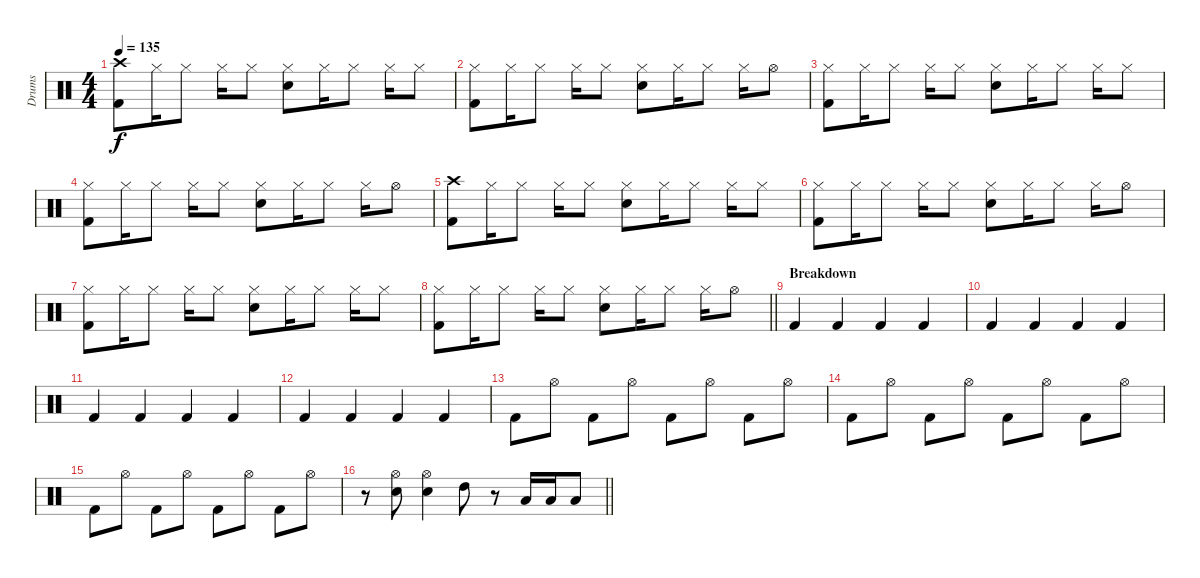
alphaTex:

\track ("Drums" "Drums") {instrument percussion}
\staff {score}
\articulation defaults
\ts (4 4)
\tempo 135
\clef neutral
\ks c
("Crash high (hit)" "Kick (hit) 2").8{dy f} "Hi-Hat (closed)".16 "Hi-Hat (closed)".8 "Hi-Hat (closed)".16 "Hi-Hat (closed)".8 ("Hi-Hat (closed)" "Electric Snare (hit)").8 "Hi-Hat (closed)".16 "Hi-Hat (closed)".8 "Hi-Hat (closed)".16 "Hi-Hat (closed)".8 |
("Hi-Hat (closed)" "Kick (hit) 2").8 "Hi-Hat (closed)".16 "Hi-Hat (closed)".8 "Hi-Hat (closed)".16 "Hi-Hat (closed)".8 ("Hi-Hat (closed)" "Electric Snare (hit)").8 "Hi-Hat (closed)".16 "Hi-Hat (closed)".8 "Hi-Hat (closed)".16 "Hi-Hat (open)".8 |
("Hi-Hat (closed)" "Kick (hit) 2").8 "Hi-Hat (closed)".16 "Hi-Hat (closed)".8 "Hi-Hat (closed)".16 "Hi-Hat (closed)".8 ("Hi-Hat (closed)" "Electric Snare (hit)").8 "Hi-Hat (closed)".16 "Hi-Hat (closed)".8 "Hi-Hat (closed)".16 "Hi-Hat (closed)".8 |
("Hi-Hat (closed)" "Kick (hit) 2").8 "Hi-Hat (closed)".16 "Hi-Hat (closed)".8 "Hi-Hat (closed)".16 "Hi-Hat (closed)".8 ("Hi-Hat (closed)" "Electric Snare (hit)").8 "Hi-Hat (closed)".16 "Hi-Hat (closed)".8 "Hi-Hat (closed)".16 "Hi-Hat (open)".8 |
("Crash high (hit)" "Kick (hit) 2").8 "Hi-Hat (closed)".16 "Hi-Hat (closed)".8 "Hi-Hat (closed)".16 "Hi-Hat (closed)".8 ("Hi-Hat (closed)" "Electric Snare (hit)").8 "Hi-Hat (closed)".16 "Hi-Hat (closed)".8 "Hi-Hat (closed)".16 "Hi-Hat (closed)".8 |
("Hi-Hat (closed)" "Kick (hit) 2").8 "Hi-Hat (closed)".16 "Hi-Hat (closed)".8 "Hi-Hat (closed)".16 "Hi-Hat (closed)".8 ("Hi-Hat (closed)" "Electric Snare (hit)").8 "Hi-Hat (closed)".16 "Hi-Hat (closed)".8 "Hi-Hat (closed)".16 "Hi-Hat (open)".8 |
("Hi-Hat (closed)" "Kick (hit) 2").8 "Hi-Hat (closed)".16 "Hi-Hat (closed)".8 "Hi-Hat (closed)".16 "Hi-Hat (closed)".8 ("Hi-Hat (closed)" "Electric Snare (hit)").8 "Hi-Hat (closed)".16 "Hi-Hat (closed)".8 "Hi-Hat (closed)".16 "Hi-Hat (closed)".8 |
\barLineRight lightlight
("Hi-Hat (closed)" "Kick (hit) 2").8 "Hi-Hat (closed)".16 "Hi-Hat (closed)".8 "Hi-Hat (closed)".16 "Hi-Hat (closed)".8 ("Hi-Hat (closed)" "Electric Snare (hit)").8 "Hi-Hat (closed)".16 "Hi-Hat (closed)".8 "Hi-Hat (closed)".16 "Hi-Hat (open)".8 |
\section ("" "Breakdown")
"Kick (hit) 2".4 "Kick (hit) 2".4 "Kick (hit) 2".4 "Kick (hit) 2".4 |
"Kick (hit) 2".4 "Kick (hit) 2".4 "Kick (hit) 2".4 "Kick (hit) 2".4 |
"Kick (hit) 2".4 "Kick (hit) 2".4 "Kick (hit) 2".4 "Kick (hit) 2".4 |
"Kick (hit) 2".4 "Kick (hit) 2".4 "Kick (hit) 2".4 "Kick (hit) 2".4 |
"Kick (hit) 2".8 "Hi-Hat (open)".8 "Kick (hit) 2".8 "Hi-Hat (open)".8 "Kick (hit) 2".8 "Hi-Hat (open)".8 "Kick (hit) 2".8 "Hi-Hat (open)".8 |
"Kick (hit) 2".8 "Hi-Hat (open)".8 "Kick (hit) 2".8 "Hi-Hat (open)".8 "Kick (hit) 2".8 "Hi-Hat (open)".8 "Kick (hit) 2".8 "Hi-Hat (open)".8 |
"Kick (hit) 2".8 "Hi-Hat (open)".8 "Kick (hit) 2".8 "Hi-Hat (open)".8 "Kick (hit) 2".8 "Hi-Hat (open)".8 "Kick (hit) 2".8 "Hi-Hat (open)".8 |
\barLineRight lightlight
r.8 ("Hi-Hat (open)" "Electric Snare (hit)").8 ("Hi-Hat (open)" "Electric Snare (hit)").4 "High Tom (hit)".8 r.8 "Low Floor Tom (hit)".16 "Low Floor Tom (hit)".16 "Low Floor Tom (hit)".8
